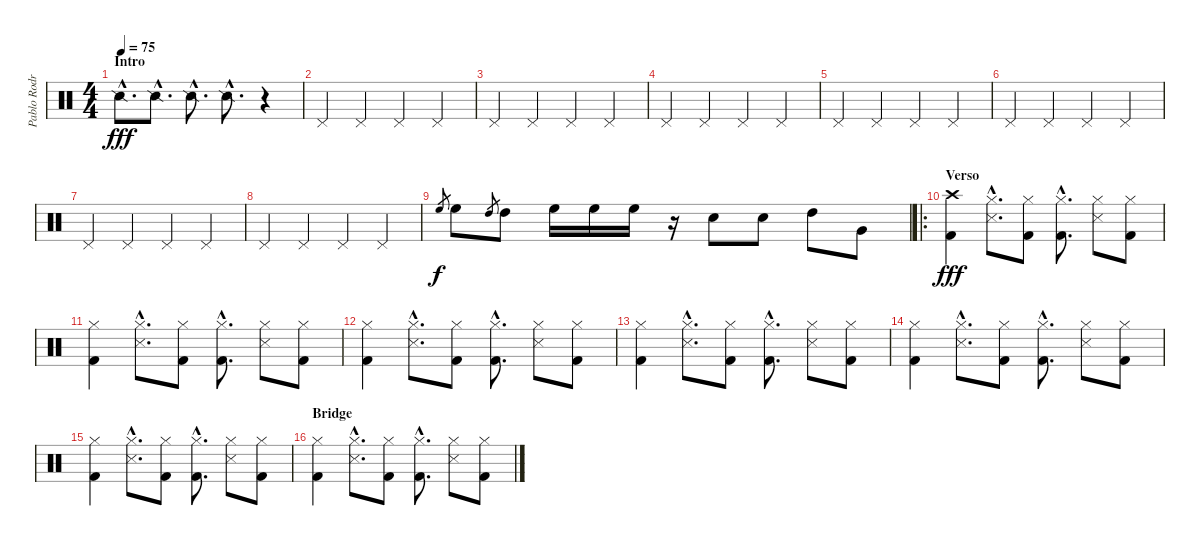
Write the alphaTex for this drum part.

\track ("Pablo Rodrigues" "Pablo Rodr") {instrument percussion}
\staff {score}
\articulation defaults
\ts (4 4)
\section ("" "Intro")
\tempo 75
\clef neutral
\ks c "Snare (side stick) 2"{hac}.8{d dy fff} "Snare (side stick) 2"{hac}.8{d} "Snare (side stick) 2"{hac}.8{d} "Snare (side stick) 2"{hac}.8{d}
r.4 |
"Pedal Hi-Hat (hit)".4 "Pedal Hi-Hat (hit)".4 "Pedal Hi-Hat (hit)".4 "Pedal Hi-Hat (hit)".4 |
"Pedal Hi-Hat (hit)".4 "Pedal Hi-Hat (hit)".4 "Pedal Hi-Hat (hit)".4 "Pedal Hi-Hat (hit)".4 |
"Pedal Hi-Hat (hit)".4 "Pedal Hi-Hat (hit)".4 "Pedal Hi-Hat (hit)".4 "Pedal Hi-Hat (hit)".4 |
"Pedal Hi-Hat (hit)".4 "Pedal Hi-Hat (hit)".4 "Pedal Hi-Hat (hit)".4 "Pedal Hi-Hat (hit)".4 |
"Pedal Hi-Hat (hit)".4 "Pedal Hi-Hat (hit)".4 "Pedal Hi-Hat (hit)".4 "Pedal Hi-Hat (hit)".4 |
"Pedal Hi-Hat (hit)".4 "Pedal Hi-Hat (hit)".4 "Pedal Hi-Hat (hit)".4 "Pedal Hi-Hat (hit)".4 |
"Pedal Hi-Hat (hit)".4 "Pedal Hi-Hat (hit)".4 "Pedal Hi-Hat (hit)".4 "Pedal Hi-Hat (hit)".4 |
"High Floor Tom (hit)".8{gr dy f} "High Floor Tom (hit)".8 "High Tom (hit)".8{gr} "High Tom (hit)".8 "High Floor Tom (hit)".16 "High Floor Tom (hit)".16 "High Floor Tom (hit)".16 r.16 "Snare (hit) 2".8 "Snare (hit) 2".8 "High Tom (hit)".8 "Very Low Tom (hit)".8 |
\ro
\section ("" "Verso")
("Crash high (hit)" "Kick (hit) 2").4{dy fff} ("Hi-Hat (closed)"{hac} "Snare (side stick) 3"{hac}).8{d} ("Hi-Hat (closed)" "Kick (hit) 2").8 ("Hi-Hat (closed)"{hac} "Kick (hit) 2"{hac}).8{d} ("Hi-Hat (closed)" "Snare (side stick) 3").8 ("Hi-Hat (closed)" "Kick (hit) 2").8 |
("Hi-Hat (closed)" "Kick (hit) 2").4 ("Hi-Hat (closed)"{hac} "Snare (side stick) 3"{hac}).8{d} ("Hi-Hat (closed)" "Kick (hit) 2").8 ("Hi-Hat (closed)"{hac} "Kick (hit) 2"{hac}).8{d} ("Hi-Hat (closed)" "Snare (side stick) 3").8 ("Hi-Hat (closed)" "Kick (hit) 2").8 |
("Hi-Hat (closed)" "Kick (hit) 2").4 ("Hi-Hat (closed)"{hac} "Snare (side stick) 3"{hac}).8{d} ("Hi-Hat (closed)" "Kick (hit) 2").8 ("Hi-Hat (closed)"{hac} "Kick (hit) 2"{hac}).8{d} ("Hi-Hat (closed)" "Snare (side stick) 3").8 ("Hi-Hat (closed)" "Kick (hit) 2").8 |
("Hi-Hat (closed)" "Kick (hit) 2").4 ("Hi-Hat (closed)"{hac} "Snare (side stick) 3"{hac}).8{d} ("Hi-Hat (closed)" "Kick (hit) 2").8 ("Hi-Hat (closed)"{hac} "Kick (hit) 2"{hac}).8{d} ("Hi-Hat (closed)" "Snare (side stick) 3").8 ("Hi-Hat (closed)" "Kick (hit) 2").8 |
("Hi-Hat (closed)" "Kick (hit) 2").4 ("Hi-Hat (closed)"{hac} "Snare (side stick) 3"{hac}).8{d} ("Hi-Hat (closed)" "Kick (hit) 2").8 ("Hi-Hat (closed)"{hac} "Kick (hit) 2"{hac}).8{d} ("Hi-Hat (closed)" "Snare (side stick) 3").8 ("Hi-Hat (closed)" "Kick (hit) 2").8 |
("Hi-Hat (closed)" "Kick (hit) 2").4 ("Hi-Hat (closed)"{hac} "Snare (side stick) 3"{hac}).8{d} ("Hi-Hat (closed)" "Kick (hit) 2").8 ("Hi-Hat (closed)"{hac} "Kick (hit) 2"{hac}).8{d} ("Hi-Hat (closed)" "Snare (side stick) 3").8 ("Hi-Hat (closed)" "Kick (hit) 2").8 |
\section ("" "Bridge")
("Hi-Hat (closed)" "Kick (hit) 2").4 ("Hi-Hat (closed)"{hac} "Snare (side stick) 3"{hac}).8{d} ("Hi-Hat (closed)" "Kick (hit) 2").8 ("Hi-Hat (closed)"{hac} "Kick (hit) 2"{hac}).8{d} ("Hi-Hat (closed)" "Snare (side stick) 3").8 ("Hi-Hat (closed)" "Kick (hit) 2").8
